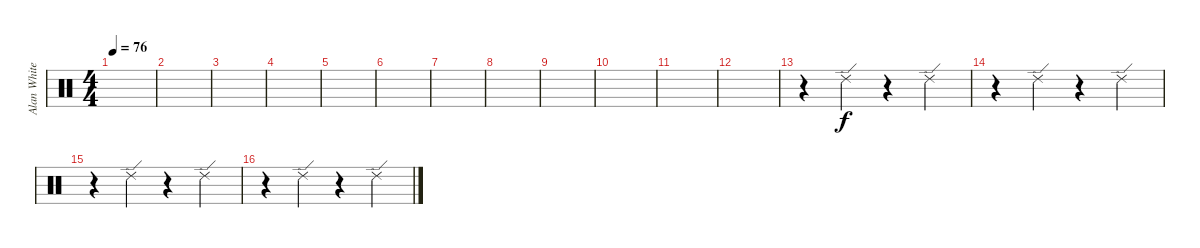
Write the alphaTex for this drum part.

\track ("Alan White" "Alan White") {instrument percussion}
\staff {score}
\articulation defaults
\ts (4 4)
\tempo 76
\clef neutral
\ks c
|
|
|
|
|
|
|
|
|
|
|
|
r.4 "Ride (edge) 2".4 r.4 "Ride (edge) 2".4 |
r.4 "Ride (edge) 2".4 r.4 "Ride (edge) 2".4 |
r.4 "Ride (edge) 2".4 r.4 "Ride (edge) 2".4 |
r.4 "Ride (edge) 2".4 r.4 "Ride (edge) 2".4
